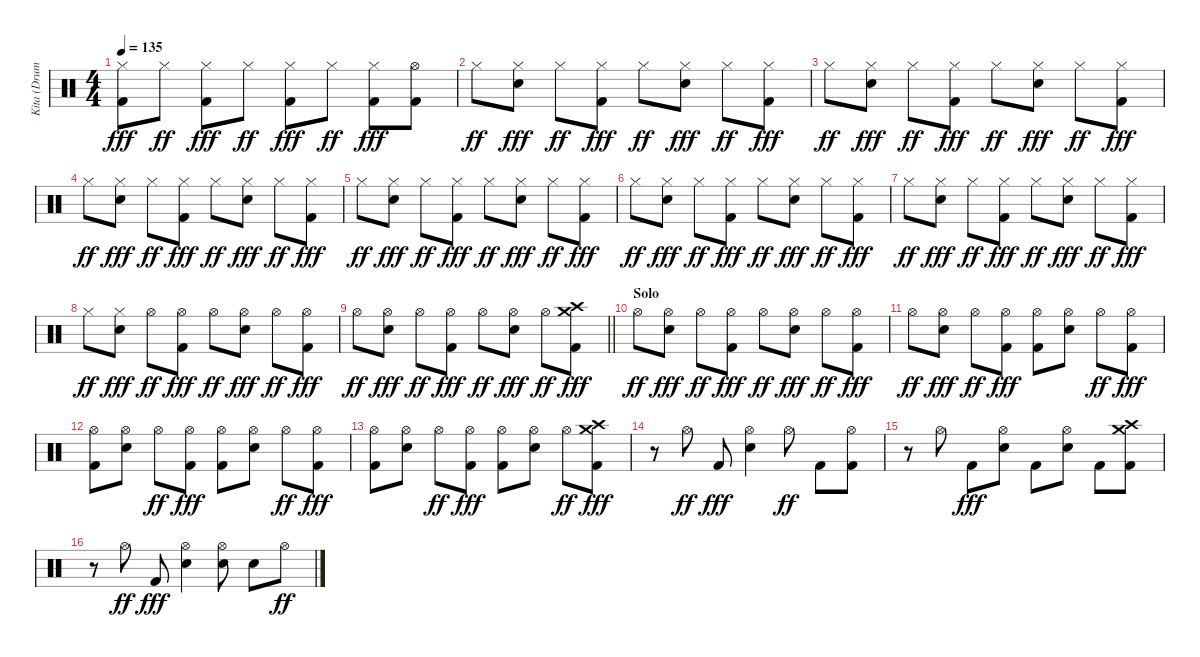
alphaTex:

\track ("Kita (Drums)" "Kita (Drum") {instrument percussion}
\staff {score}
\articulation defaults
\ts (4 4)
\tempo 135
\clef neutral
\ks c
("Hi-Hat (closed)" "Kick (hit) 2").8{dy fff} "Hi-Hat (closed)".8{dy ff} ("Hi-Hat (closed)" "Kick (hit) 2").8{dy fff} "Hi-Hat (closed)".8{dy ff} ("Hi-Hat (closed)" "Kick (hit) 2").8{dy fff} "Hi-Hat (closed)".8{dy ff} ("Hi-Hat (closed)" "Kick (hit) 2").8{dy fff} ("Hi-Hat (open)" "Kick (hit) 2").8 |
"Hi-Hat (closed)".8{dy ff} ("Hi-Hat (closed)" "Electric Snare (hit)").8{dy fff} "Hi-Hat (closed)".8{dy ff} ("Hi-Hat (closed)" "Kick (hit) 2").8{dy fff} "Hi-Hat (closed)".8{dy ff} ("Hi-Hat (closed)" "Electric Snare (hit)").8{dy fff} "Hi-Hat (closed)".8{dy ff} ("Hi-Hat (closed)" "Kick (hit) 2").8{dy fff} |
"Hi-Hat (closed)".8{dy ff} ("Hi-Hat (closed)" "Electric Snare (hit)").8{dy fff} "Hi-Hat (closed)".8{dy ff} ("Hi-Hat (closed)" "Kick (hit) 2").8{dy fff} "Hi-Hat (closed)".8{dy ff} ("Hi-Hat (closed)" "Electric Snare (hit)").8{dy fff} "Hi-Hat (closed)".8{dy ff} ("Hi-Hat (closed)" "Kick (hit) 2").8{dy fff} |
"Hi-Hat (closed)".8{dy ff} ("Hi-Hat (closed)" "Electric Snare (hit)").8{dy fff} "Hi-Hat (closed)".8{dy ff} ("Hi-Hat (closed)" "Kick (hit) 2").8{dy fff} "Hi-Hat (closed)".8{dy ff} ("Hi-Hat (closed)" "Electric Snare (hit)").8{dy fff} "Hi-Hat (closed)".8{dy ff} ("Hi-Hat (closed)" "Kick (hit) 2").8{dy fff} |
"Hi-Hat (closed)".8{dy ff} ("Hi-Hat (closed)" "Electric Snare (hit)").8{dy fff} "Hi-Hat (closed)".8{dy ff} ("Hi-Hat (closed)" "Kick (hit) 2").8{dy fff} "Hi-Hat (closed)".8{dy ff} ("Hi-Hat (closed)" "Electric Snare (hit)").8{dy fff} "Hi-Hat (closed)".8{dy ff} ("Hi-Hat (closed)" "Kick (hit) 2").8{dy fff} |
"Hi-Hat (closed)".8{dy ff} ("Hi-Hat (closed)" "Electric Snare (hit)").8{dy fff} "Hi-Hat (closed)".8{dy ff} ("Hi-Hat (closed)" "Kick (hit) 2").8{dy fff} "Hi-Hat (closed)".8{dy ff} ("Hi-Hat (closed)" "Electric Snare (hit)").8{dy fff} "Hi-Hat (closed)".8{dy ff} ("Hi-Hat (closed)" "Kick (hit) 2").8{dy fff} |
"Hi-Hat (closed)".8{dy ff} ("Hi-Hat (closed)" "Electric Snare (hit)").8{dy fff} "Hi-Hat (closed)".8{dy ff} ("Hi-Hat (closed)" "Kick (hit) 2").8{dy fff} "Hi-Hat (closed)".8{dy ff} ("Hi-Hat (closed)" "Electric Snare (hit)").8{dy fff} "Hi-Hat (closed)".8{dy ff} ("Hi-Hat (closed)" "Kick (hit) 2").8{dy fff} |
"Hi-Hat (closed)".8{dy ff} ("Hi-Hat (closed)" "Electric Snare (hit)").8{dy fff} "Hi-Hat (open)".8{dy ff} ("Hi-Hat (open)" "Kick (hit) 2").8{dy fff} "Hi-Hat (open)".8{dy ff} ("Hi-Hat (open)" "Electric Snare (hit)").8{dy fff} "Hi-Hat (open)".8{dy ff} ("Hi-Hat (open)" "Kick (hit) 2").8{dy fff} |
\barLineRight lightlight "Hi-Hat (open)".8{dy ff}
("Hi-Hat (open)" "Electric Snare (hit)").8{dy fff} "Hi-Hat (open)".8{dy ff} ("Hi-Hat (open)" "Kick (hit) 2").8{dy fff} "Hi-Hat (open)".8{dy ff} ("Hi-Hat (open)" "Electric Snare (hit)").8{dy fff} "Hi-Hat (open)".8{dy ff} ("Crash medium (hit)" "Crash high (hit)" "Kick (hit) 2").8{dy fff} |
\section ("" "Solo")
"Hi-Hat (open)".8{dy ff} ("Hi-Hat (open)" "Electric Snare (hit)").8{dy fff} "Hi-Hat (open)".8{dy ff} ("Hi-Hat (open)" "Kick (hit) 2").8{dy fff} "Hi-Hat (open)".8{dy ff} ("Hi-Hat (open)" "Electric Snare (hit)").8{dy fff} "Hi-Hat (open)".8{dy ff} ("Hi-Hat (open)" "Kick (hit) 2").8{dy fff} |
"Hi-Hat (open)".8{dy ff} ("Hi-Hat (open)" "Electric Snare (hit)").8{dy fff} "Hi-Hat (open)".8{dy ff} ("Hi-Hat (open)" "Kick (hit) 2").8{dy fff} ("Hi-Hat (open)" "Kick (hit) 2").8 ("Hi-Hat (open)" "Electric Snare (hit)").8 "Hi-Hat (open)".8{dy ff} ("Hi-Hat (open)" "Kick (hit) 2").8{dy fff} |
("Hi-Hat (open)" "Kick (hit) 2").8 ("Hi-Hat (open)" "Electric Snare (hit)").8 "Hi-Hat (open)".8{dy ff} ("Hi-Hat (open)" "Kick (hit) 2").8{dy fff} ("Hi-Hat (open)" "Kick (hit) 2").8 ("Hi-Hat (open)" "Electric Snare (hit)").8 "Hi-Hat (open)".8{dy ff} ("Hi-Hat (open)" "Kick (hit) 2").8{dy fff} |
("Hi-Hat (open)" "Kick (hit) 2").8 ("Hi-Hat (open)" "Electric Snare (hit)").8 "Hi-Hat (open)".8{dy ff} ("Hi-Hat (open)" "Kick (hit) 2").8{dy fff} ("Hi-Hat (open)" "Kick (hit) 2").8 ("Hi-Hat (open)" "Electric Snare (hit)").8 "Hi-Hat (open)".8{dy ff} ("Crash medium (hit)" "Crash high (hit)" "Kick (hit) 2").8{dy fff} |
r.8 "Hi-Hat (open)".8{dy ff} "Kick (hit) 2".8{dy fff} ("Hi-Hat (open)" "Electric Snare (hit)").4 "Hi-Hat (open)".8{dy ff} "Kick (hit) 2".8 ("Hi-Hat (open)" "Kick (hit) 2").8 |
r.8 "Hi-Hat (open)".8 "Kick (hit) 2".8{dy fff} ("Hi-Hat (open)" "Electric Snare (hit)").8 "Kick (hit) 2".8 ("Hi-Hat (open)" "Electric Snare (hit)").8 "Kick (hit) 2".8 ("Crash medium (hit)" "Crash high (hit)" "Kick (hit) 2").8 |
r.8 "Hi-Hat (open)".8{dy ff} "Kick (hit) 2".8{dy fff} ("Hi-Hat (open)" "Electric Snare (hit)").4 ("Hi-Hat (open)" "Electric Snare (hit)").8 "Electric Snare (hit)".8 "Hi-Hat (open)".8{dy ff}
